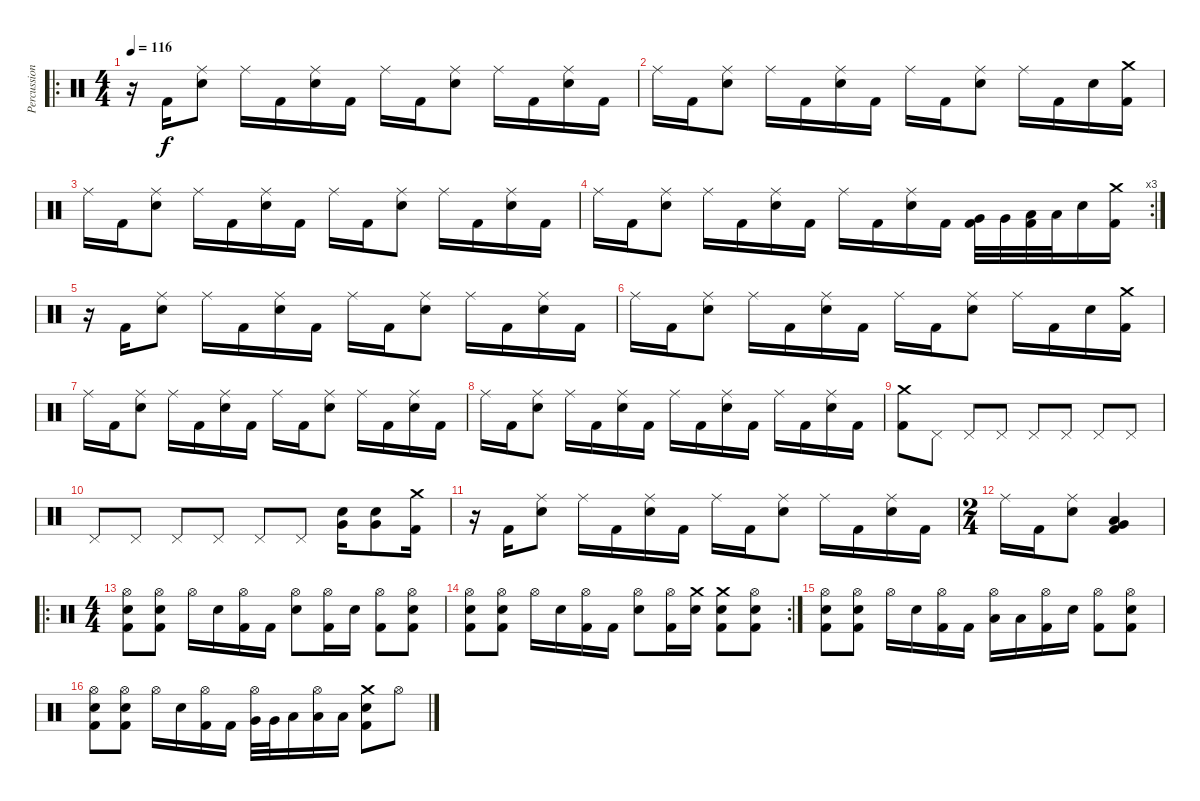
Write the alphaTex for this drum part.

\track ("Percussion" "Percussion") {instrument percussion}
\staff {score}
\articulation defaults
\ro
\ts (4 4)
\tempo 116
\clef neutral
\ks c
r.16{dy f} "Kick (hit) 2".16 ("Ride (middle)" "Electric Snare (hit)").8 "Ride (middle)".16 "Kick (hit) 2".16 ("Ride (middle)" "Electric Snare (hit)").16 "Kick (hit) 2".16 "Ride (middle)".16 "Kick (hit) 2".16 ("Ride (middle)" "Electric Snare (hit)").8 "Ride (middle)".16 "Kick (hit) 2".16 ("Ride (middle)" "Electric Snare (hit)").16 "Kick (hit) 2".16 |
"Ride (middle)".16 "Kick (hit) 2".16 ("Ride (middle)" "Electric Snare (hit)").8 "Ride (middle)".16 "Kick (hit) 2".16 ("Ride (middle)" "Electric Snare (hit)").16 "Kick (hit) 2".16 "Ride (middle)".16 "Kick (hit) 2".16 ("Ride (middle)" "Electric Snare (hit)").8 "Ride (middle)".16 "Kick (hit) 2".16 "Electric Snare (hit)".16 ("Crash medium (hit)" "Kick (hit) 2").16 |
"Ride (middle)".16 "Kick (hit) 2".16 ("Ride (middle)" "Electric Snare (hit)").8 "Ride (middle)".16 "Kick (hit) 2".16 ("Ride (middle)" "Electric Snare (hit)").16 "Kick (hit) 2".16 "Ride (middle)".16 "Kick (hit) 2".16 ("Ride (middle)" "Electric Snare (hit)").8 "Ride (middle)".16 "Kick (hit) 2".16 ("Ride (middle)" "Electric Snare (hit)").16 "Kick (hit) 2".16 |
\rc 3 "Ride (middle)".16 "Kick (hit) 2".16
("Ride (middle)" "Electric Snare (hit)").8 "Ride (middle)".16 "Kick (hit) 2".16 ("Ride (middle)" "Electric Snare (hit)").16 "Kick (hit) 2".16 "Ride (middle)".16 "Kick (hit) 2".16 ("Ride (middle)" "Electric Snare (hit)").16 "Kick (hit) 2".16 ("Very Low Tom (hit)" "Kick (hit) 2").32 "Very Low Tom (hit)".32 ("Low Tom (hit)" "Kick (hit) 2").32 "Low Tom (hit)".32 "Electric Snare (hit)".16 ("Crash medium (hit)" "Kick (hit) 2").16 |
r.16 "Kick (hit) 2".16 ("Ride (middle)" "Electric Snare (hit)").8 "Ride (middle)".16 "Kick (hit) 2".16 ("Ride (middle)" "Electric Snare (hit)").16 "Kick (hit) 2".16 "Ride (middle)".16 "Kick (hit) 2".16 ("Ride (middle)" "Electric Snare (hit)").8 "Ride (middle)".16 "Kick (hit) 2".16 ("Ride (middle)" "Electric Snare (hit)").16 "Kick (hit) 2".16 |
"Ride (middle)".16 "Kick (hit) 2".16 ("Ride (middle)" "Electric Snare (hit)").8 "Ride (middle)".16 "Kick (hit) 2".16 ("Ride (middle)" "Electric Snare (hit)").16 "Kick (hit) 2".16 "Ride (middle)".16 "Kick (hit) 2".16 ("Ride (middle)" "Electric Snare (hit)").8 "Ride (middle)".16 "Kick (hit) 2".16 "Electric Snare (hit)".16 ("Crash medium (hit)" "Kick (hit) 2").16 |
"Ride (middle)".16 "Kick (hit) 2".16 ("Ride (middle)" "Electric Snare (hit)").8 "Ride (middle)".16 "Kick (hit) 2".16 ("Ride (middle)" "Electric Snare (hit)").16 "Kick (hit) 2".16 "Ride (middle)".16 "Kick (hit) 2".16 ("Ride (middle)" "Electric Snare (hit)").8 "Ride (middle)".16 "Kick (hit) 2".16 ("Ride (middle)" "Electric Snare (hit)").16 "Kick (hit) 2".16 |
"Ride (middle)".16 "Kick (hit) 2".16 ("Ride (middle)" "Electric Snare (hit)").8 "Ride (middle)".16 "Kick (hit) 2".16 ("Ride (middle)" "Electric Snare (hit)").16 "Kick (hit) 2".16 "Ride (middle)".16 "Kick (hit) 2".16 ("Ride (middle)" "Electric Snare (hit)").16 "Kick (hit) 2".16 "Ride (middle)".16 "Kick (hit) 2".16 ("Ride (middle)" "Electric Snare (hit)").16 "Kick (hit) 2".16 |
("Crash medium (hit)" "Kick (hit) 2").8 "Pedal Hi-Hat (hit)".8 "Pedal Hi-Hat (hit)".8 "Pedal Hi-Hat (hit)".8 "Pedal Hi-Hat (hit)".8 "Pedal Hi-Hat (hit)".8 "Pedal Hi-Hat (hit)".8 "Pedal Hi-Hat (hit)".8 |
"Pedal Hi-Hat (hit)".8 "Pedal Hi-Hat (hit)".8 "Pedal Hi-Hat (hit)".8 "Pedal Hi-Hat (hit)".8 "Pedal Hi-Hat (hit)".8 "Pedal Hi-Hat (hit)".8 ("Very Low Tom (hit)" "Electric Snare (hit)").16 ("Very Low Tom (hit)" "Electric Snare (hit)").8 ("Crash medium (hit)" "Kick (hit) 2").16 |
r.16 "Kick (hit) 2".16 ("Ride (middle)" "Electric Snare (hit)").8 "Ride (middle)".16 "Kick (hit) 2".16 ("Ride (middle)" "Electric Snare (hit)").16 "Kick (hit) 2".16 "Ride (middle)".16 "Kick (hit) 2".16 ("Ride (middle)" "Electric Snare (hit)").8 "Ride (middle)".16 "Kick (hit) 2".16 ("Ride (middle)" "Electric Snare (hit)").16 "Kick (hit) 2".16 |
\ts (2 4)
"Ride (middle)".16 "Kick (hit) 2".16 ("Ride (middle)" "Electric Snare (hit)").8 ("Very Low Tom (hit)" "Low Tom (hit)" "Kick (hit) 2").4 |
\ro
\ts (4 4)
("Hi-Hat (open)" "Electric Snare (hit)" "Kick (hit) 2").8 ("Hi-Hat (open)" "Electric Snare (hit)" "Kick (hit) 2").8 "Hi-Hat (open)".16 "Electric Snare (hit)".16 ("Hi-Hat (open)" "Kick (hit) 2").16 "Kick (hit) 2".16 ("Hi-Hat (open)" "Electric Snare (hit)").8 ("Hi-Hat (open)" "Kick (hit) 2").16 "Electric Snare (hit)".16 ("Hi-Hat (open)" "Kick (hit) 2").8 ("Hi-Hat (open)" "Electric Snare (hit)" "Kick (hit) 2").8 |
\rc 2
("Hi-Hat (open)" "Electric Snare (hit)" "Kick (hit) 2").8 ("Hi-Hat (open)" "Electric Snare (hit)" "Kick (hit) 2").8 "Hi-Hat (open)".16 "Electric Snare (hit)".16 ("Hi-Hat (open)" "Kick (hit) 2").16 "Kick (hit) 2".16 ("Hi-Hat (open)" "Electric Snare (hit)").8 ("Hi-Hat (open)" "Kick (hit) 2").16 ("Crash medium (hit)" "Electric Snare (hit)").16 ("Crash medium (hit)" "Electric Snare (hit)" "Kick (hit) 2").8 ("Hi-Hat (open)" "Electric Snare (hit)" "Kick (hit) 2").8 |
("Hi-Hat (open)" "Electric Snare (hit)" "Kick (hit) 2").8 ("Hi-Hat (open)" "Electric Snare (hit)" "Kick (hit) 2").8 "Hi-Hat (open)".16 "Electric Snare (hit)".16 ("Hi-Hat (open)" "Kick (hit) 2").16 "Kick (hit) 2".16 ("Hi-Hat (open)" "Low Tom (hit)").16 "Low Tom (hit)".16 ("Hi-Hat (open)" "Kick (hit) 2").16 "Electric Snare (hit)".16 ("Hi-Hat (open)" "Kick (hit) 2").8 ("Hi-Hat (open)" "Electric Snare (hit)" "Kick (hit) 2").8 |
("Hi-Hat (open)" "Electric Snare (hit)" "Kick (hit) 2").8 ("Hi-Hat (open)" "Electric Snare (hit)" "Kick (hit) 2").8 "Hi-Hat (open)".16 "Electric Snare (hit)".16 ("Hi-Hat (open)" "Kick (hit) 2").16 "Kick (hit) 2".16 ("Hi-Hat (open)" "Very Low Tom (hit)").32 "Very Low Tom (hit)".32 "Low Tom (hit)".16 ("Hi-Hat (open)" "Low Tom (hit)").16 "Low Tom (hit)".16 ("Crash medium (hit)" "Electric Snare (hit)" "Kick (hit) 2").8 "Hi-Hat (open)".8
